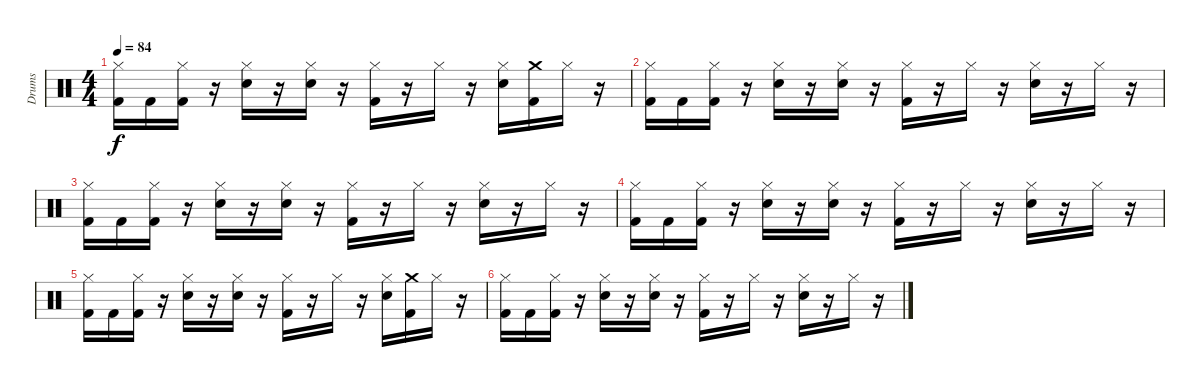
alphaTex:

\track ("Drums" "Drums") {instrument percussion}
\staff {score}
\articulation defaults
\ts (4 4)
\tempo 84
\clef neutral
\ks c
("Hi-Hat (closed)" "Kick (hit) 2").16{dy f} "Kick (hit) 2".16 ("Hi-Hat (closed)" "Kick (hit) 2").16 r.16 ("Hi-Hat (closed)" "Snare (hit) 2").16 r.16 ("Hi-Hat (closed)" "Snare (hit) 2").16 r.16 ("Hi-Hat (closed)" "Kick (hit) 2").16 r.16 "Hi-Hat (closed)".16 r.16 ("Hi-Hat (closed)" "Snare (hit) 2").16 ("Crash medium (hit)" "Kick (hit) 2").16 "Hi-Hat (closed)".16 r.16 |
("Hi-Hat (closed)" "Kick (hit) 2").16 "Kick (hit) 2".16 ("Hi-Hat (closed)" "Kick (hit) 2").16 r.16 ("Hi-Hat (closed)" "Snare (hit) 2").16 r.16 ("Hi-Hat (closed)" "Snare (hit) 2").16 r.16 ("Hi-Hat (closed)" "Kick (hit) 2").16 r.16 "Hi-Hat (closed)".16 r.16 ("Hi-Hat (closed)" "Snare (hit) 2").16 r.16 "Hi-Hat (closed)".16 r.16 |
("Hi-Hat (closed)" "Kick (hit) 2").16 "Kick (hit) 2".16 ("Hi-Hat (closed)" "Kick (hit) 2").16 r.16 ("Hi-Hat (closed)" "Snare (hit) 2").16 r.16 ("Hi-Hat (closed)" "Snare (hit) 2").16 r.16 ("Hi-Hat (closed)" "Kick (hit) 2").16 r.16 "Hi-Hat (closed)".16 r.16 ("Hi-Hat (closed)" "Snare (hit) 2").16 r.16 "Hi-Hat (closed)".16 r.16 |
("Hi-Hat (closed)" "Kick (hit) 2").16 "Kick (hit) 2".16 ("Hi-Hat (closed)" "Kick (hit) 2").16 r.16 ("Hi-Hat (closed)" "Snare (hit) 2").16 r.16 ("Hi-Hat (closed)" "Snare (hit) 2").16{volume 0} r.16 ("Hi-Hat (closed)" "Kick (hit) 2").16 r.16 "Hi-Hat (closed)".16 r.16 ("Hi-Hat (closed)" "Snare (hit) 2").16 r.16 "Hi-Hat (closed)".16 r.16 |
("Hi-Hat (closed)" "Kick (hit) 2").16 "Kick (hit) 2".16 ("Hi-Hat (closed)" "Kick (hit) 2").16 r.16 ("Hi-Hat (closed)" "Snare (hit) 2").16 r.16 ("Hi-Hat (closed)" "Snare (hit) 2").16 r.16 ("Hi-Hat (closed)" "Kick (hit) 2").16 r.16 "Hi-Hat (closed)".16 r.16 ("Hi-Hat (closed)" "Snare (hit) 2").16 ("Crash medium (hit)" "Kick (hit) 2").16 "Hi-Hat (closed)".16 r.16 |
("Hi-Hat (closed)" "Kick (hit) 2").16 "Kick (hit) 2".16 ("Hi-Hat (closed)" "Kick (hit) 2").16 r.16 ("Hi-Hat (closed)" "Snare (hit) 2").16 r.16 ("Hi-Hat (closed)" "Snare (hit) 2").16 r.16 ("Hi-Hat (closed)" "Kick (hit) 2").16 r.16 "Hi-Hat (closed)".16 r.16 ("Hi-Hat (closed)" "Snare (hit) 2").16 r.16 "Hi-Hat (closed)".16 r.16
